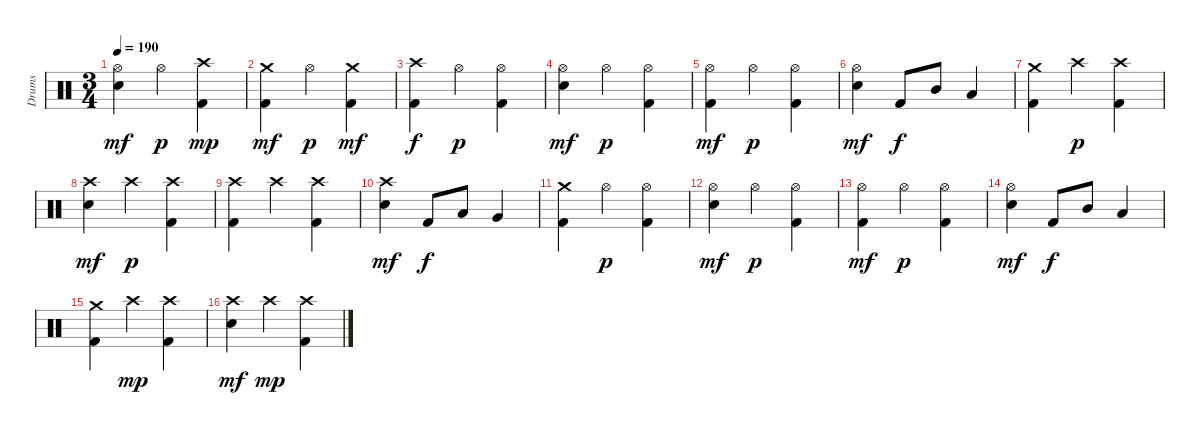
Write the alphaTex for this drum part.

\track ("Drums" "Drums") {instrument percussion}
\staff {score}
\articulation defaults
\ts (3 4)
\tempo 190
\clef neutral
\ks c
("Hi-Hat (open)" "Electric Snare (hit)").4{dy mf} "Hi-Hat (open)".4{dy p} ("Crash high (hit)" "Kick (hit) 2").4{dy mp} |
("Crash medium (hit)" "Kick (hit) 2").4{dy mf} "Hi-Hat (open)".4{dy p} ("Crash medium (hit)" "Kick (hit) 2").4{dy mf} |
("Crash high (hit)" "Kick (hit) 2").4{dy f} "Hi-Hat (open)".4{dy p} ("Hi-Hat (open)" "Kick (hit) 2").4 |
("Hi-Hat (open)" "Electric Snare (hit)").4{dy mf} "Hi-Hat (open)".4{dy p} ("Hi-Hat (open)" "Kick (hit) 2").4 |
("Hi-Hat (open)" "Kick (hit) 2").4{dy mf} "Hi-Hat (open)".4{dy p} ("Hi-Hat (open)" "Kick (hit) 2").4 |
("Hi-Hat (open)" "Electric Snare (hit)").4{dy mf} "Kick (hit) 2".8{dy f} "Mid Tom (hit)".8 "Low Tom (hit)".4 |
("Crash medium (hit)" "Kick (hit) 2").4 "Crash high (hit)".4{dy p} ("Crash high (hit)" "Kick (hit) 2").4 |
("Crash high (hit)" "Electric Snare (hit)").4{dy mf} "Crash high (hit)".4{dy p} ("Crash high (hit)" "Kick (hit) 2").4 |
("Crash high (hit)" "Kick (hit) 2").4 "Crash high (hit)".4 ("Crash high (hit)" "Kick (hit) 2").4 |
("Crash high (hit)" "Electric Snare (hit)").4{dy mf} "Kick (hit) 2".8{dy f} "Low Tom (hit)".8 "Very Low Tom (hit)".4 |
("Crash medium (hit)" "Kick (hit) 2").4 "Hi-Hat (open)".4{dy p} ("Hi-Hat (open)" "Kick (hit) 2").4 |
("Hi-Hat (open)" "Electric Snare (hit)").4{dy mf} "Hi-Hat (open)".4{dy p} ("Hi-Hat (open)" "Kick (hit) 2").4 |
("Hi-Hat (open)" "Kick (hit) 2").4{dy mf} "Hi-Hat (open)".4{dy p} ("Hi-Hat (open)" "Kick (hit) 2").4 |
("Hi-Hat (open)" "Electric Snare (hit)").4{dy mf} "Kick (hit) 2".8{dy f} "Mid Tom (hit)".8 "Low Tom (hit)".4 |
("Crash medium (hit)" "Kick (hit) 2").4 "Crash high (hit)".4{dy mp} ("Crash high (hit)" "Kick (hit) 2").4 |
("Crash high (hit)" "Electric Snare (hit)").4{dy mf} "Crash high (hit)".4{dy mp} ("Crash high (hit)" "Kick (hit) 2").4
